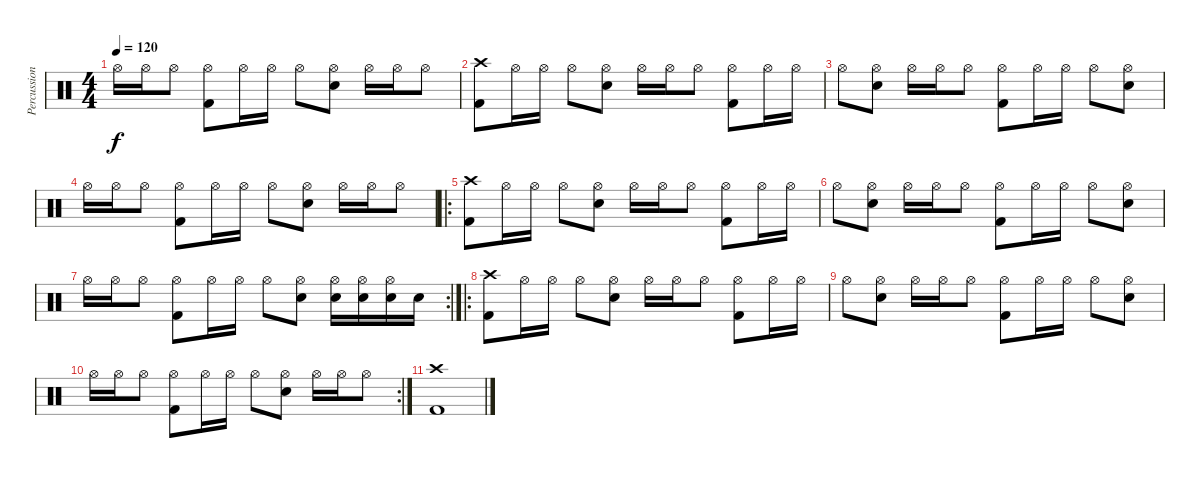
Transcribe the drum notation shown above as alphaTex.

\track ("Percussion" "Percussion") {instrument percussion}
\staff {score}
\articulation defaults
\ts (4 4)
\tempo 120
\clef neutral
\ks c "Hi-Hat (open)".16{dy f} "Hi-Hat (open)".16 "Hi-Hat (open)".8
("Hi-Hat (open)" "Kick (hit) 2").8 "Hi-Hat (open)".16 "Hi-Hat (open)".16 "Hi-Hat (open)".8 ("Hi-Hat (open)" "Snare (hit) 2").8 "Hi-Hat (open)".16 "Hi-Hat (open)".16 "Hi-Hat (open)".8 |
("Crash high (hit)" "Kick (hit) 2").8 "Hi-Hat (open)".16 "Hi-Hat (open)".16 "Hi-Hat (open)".8 ("Hi-Hat (open)" "Snare (hit) 2").8 "Hi-Hat (open)".16 "Hi-Hat (open)".16 "Hi-Hat (open)".8 ("Hi-Hat (open)" "Kick (hit) 2").8 "Hi-Hat (open)".16 "Hi-Hat (open)".16 |
"Hi-Hat (open)".8 ("Hi-Hat (open)" "Snare (hit) 2").8 "Hi-Hat (open)".16 "Hi-Hat (open)".16 "Hi-Hat (open)".8 ("Hi-Hat (open)" "Kick (hit) 2").8 "Hi-Hat (open)".16 "Hi-Hat (open)".16 "Hi-Hat (open)".8 ("Hi-Hat (open)" "Snare (hit) 2").8 |
"Hi-Hat (open)".16 "Hi-Hat (open)".16 "Hi-Hat (open)".8 ("Hi-Hat (open)" "Kick (hit) 2").8 "Hi-Hat (open)".16 "Hi-Hat (open)".16 "Hi-Hat (open)".8 ("Hi-Hat (open)" "Snare (hit) 2").8 "Hi-Hat (open)".16 "Hi-Hat (open)".16 "Hi-Hat (open)".8 |
\ro
("Crash high (hit)" "Kick (hit) 2").8 "Hi-Hat (open)".16 "Hi-Hat (open)".16 "Hi-Hat (open)".8 ("Hi-Hat (open)" "Snare (hit) 2").8 "Hi-Hat (open)".16 "Hi-Hat (open)".16 "Hi-Hat (open)".8 ("Hi-Hat (open)" "Kick (hit) 2").8 "Hi-Hat (open)".16 "Hi-Hat (open)".16 |
"Hi-Hat (open)".8 ("Hi-Hat (open)" "Snare (hit) 2").8 "Hi-Hat (open)".16 "Hi-Hat (open)".16 "Hi-Hat (open)".8 ("Hi-Hat (open)" "Kick (hit) 2").8 "Hi-Hat (open)".16 "Hi-Hat (open)".16 "Hi-Hat (open)".8 ("Hi-Hat (open)" "Snare (hit) 2").8 |
\rc 2 "Hi-Hat (open)".16 "Hi-Hat (open)".16 "Hi-Hat (open)".8
("Hi-Hat (open)" "Kick (hit) 2").8 "Hi-Hat (open)".16 "Hi-Hat (open)".16 "Hi-Hat (open)".8 ("Hi-Hat (open)" "Snare (hit) 2").8 ("Hi-Hat (open)" "Snare (hit) 2").16 ("Hi-Hat (open)" "Snare (hit) 2").16 ("Hi-Hat (open)" "Snare (hit) 2").16 "Snare (hit) 2".16 |
\ro
("Crash high (hit)" "Kick (hit) 2").8 "Hi-Hat (open)".16 "Hi-Hat (open)".16 "Hi-Hat (open)".8 ("Hi-Hat (open)" "Snare (hit) 2").8 "Hi-Hat (open)".16 "Hi-Hat (open)".16 "Hi-Hat (open)".8 ("Hi-Hat (open)" "Kick (hit) 2").8 "Hi-Hat (open)".16 "Hi-Hat (open)".16 |
"Hi-Hat (open)".8 ("Hi-Hat (open)" "Snare (hit) 2").8 "Hi-Hat (open)".16 "Hi-Hat (open)".16 "Hi-Hat (open)".8 ("Hi-Hat (open)" "Kick (hit) 2").8 "Hi-Hat (open)".16 "Hi-Hat (open)".16 "Hi-Hat (open)".8 ("Hi-Hat (open)" "Snare (hit) 2").8 |
\rc 2 "Hi-Hat (open)".16 "Hi-Hat (open)".16 "Hi-Hat (open)".8
("Hi-Hat (open)" "Kick (hit) 2").8 "Hi-Hat (open)".16 "Hi-Hat (open)".16 "Hi-Hat (open)".8 ("Hi-Hat (open)" "Snare (hit) 2").8 "Hi-Hat (open)".16 "Hi-Hat (open)".16 "Hi-Hat (open)".8 |
("Crash high (hit)" "Kick (hit) 2").1
